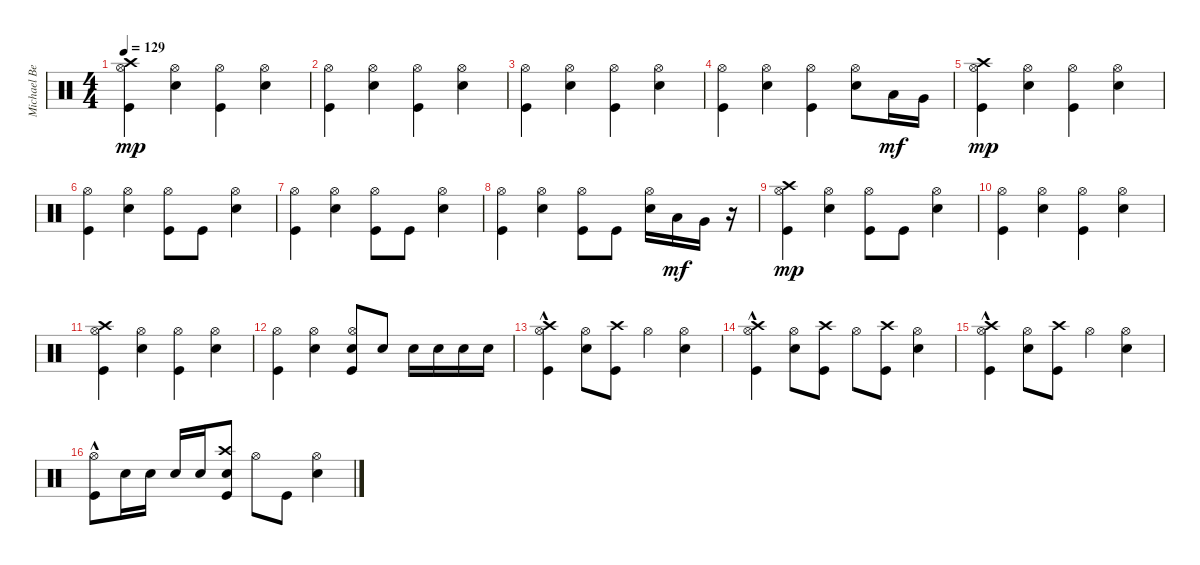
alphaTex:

\track ("Michael Beinham" "Michael Be") {instrument percussion}
\staff {score}
\articulation defaults
\ts (4 4)
\tempo 129
\clef neutral
\ks c
("Kick (hit)" "Hi-Hat (open)" "Crash high (hit)").4{dy mp} ("Snare (hit) 2" "Hi-Hat (open)").4 ("Kick (hit)" "Hi-Hat (open)").4 ("Snare (hit) 2" "Hi-Hat (open)").4 |
("Kick (hit)" "Hi-Hat (open)").4 ("Snare (hit) 2" "Hi-Hat (open)").4 ("Kick (hit)" "Hi-Hat (open)").4 ("Snare (hit) 2" "Hi-Hat (open)").4 |
("Kick (hit)" "Hi-Hat (open)").4 ("Snare (hit) 2" "Hi-Hat (open)").4 ("Kick (hit)" "Hi-Hat (open)").4 ("Snare (hit) 2" "Hi-Hat (open)").4 |
("Kick (hit)" "Hi-Hat (open)").4 ("Snare (hit) 2" "Hi-Hat (open)").4 ("Kick (hit)" "Hi-Hat (open)").4 ("Snare (hit) 2" "Hi-Hat (open)").8 "Low Tom (hit)".16{dy mf} "Very Low Tom (hit)".16 |
("Kick (hit)" "Hi-Hat (open)" "Crash high (hit)").4{dy mp} ("Snare (hit) 2" "Hi-Hat (open)").4 ("Kick (hit)" "Hi-Hat (open)").4 ("Snare (hit) 2" "Hi-Hat (open)").4 |
("Kick (hit)" "Hi-Hat (open)").4 ("Snare (hit) 2" "Hi-Hat (open)").4 ("Kick (hit)" "Hi-Hat (open)").8 "Kick (hit)".8 ("Snare (hit) 2" "Hi-Hat (open)").4 |
("Kick (hit)" "Hi-Hat (open)").4 ("Snare (hit) 2" "Hi-Hat (open)").4 ("Kick (hit)" "Hi-Hat (open)").8 "Kick (hit)".8 ("Snare (hit) 2" "Hi-Hat (open)").4 |
("Kick (hit)" "Hi-Hat (open)").4 ("Snare (hit) 2" "Hi-Hat (open)").4 ("Kick (hit)" "Hi-Hat (open)").8 "Kick (hit)".8 ("Snare (hit) 2" "Hi-Hat (open)").16 "Low Tom (hit)".16{dy mf} "Very Low Tom (hit)".16 r.16 |
("Kick (hit)" "Hi-Hat (open)" "Crash high (hit)").4{dy mp} ("Snare (hit) 2" "Hi-Hat (open)").4 ("Kick (hit)" "Hi-Hat (open)").8 "Kick (hit)".8 ("Snare (hit) 2" "Hi-Hat (open)").4 |
("Kick (hit)" "Hi-Hat (open)").4 ("Snare (hit) 2" "Hi-Hat (open)").4 ("Kick (hit)" "Hi-Hat (open)").4 ("Snare (hit) 2" "Hi-Hat (open)").4 |
("Kick (hit)" "Hi-Hat (open)" "Crash high (hit)").4 ("Snare (hit) 2" "Hi-Hat (open)").4 ("Kick (hit)" "Hi-Hat (open)").4 ("Snare (hit) 2" "Hi-Hat (open)").4 |
("Kick (hit)" "Hi-Hat (open)").4 ("Snare (hit) 2" "Hi-Hat (open)").4 ("Kick (hit)" "Snare (hit) 2" "Hi-Hat (open)").8 "Snare (hit) 2".8 "Snare (hit) 2".16 "Snare (hit) 2".16 "Snare (hit) 2".16 "Snare (hit) 2".16 |
("Kick (hit)"{hac} "Hi-Hat (open)" "Crash high (hit)"{hac}).4 ("Snare (hit) 2" "Hi-Hat (open)").8 ("Kick (hit)" "Crash high (hit)").8 "Hi-Hat (open)".4 ("Snare (hit) 2" "Hi-Hat (open)").4 |
("Kick (hit)"{hac} "Hi-Hat (open)" "Crash high (hit)"{hac}).4 ("Snare (hit) 2" "Hi-Hat (open)").8 ("Kick (hit)" "Crash high (hit)").8 "Hi-Hat (open)".8 ("Kick (hit)" "Crash high (hit)").8 ("Snare (hit) 2" "Hi-Hat (open)").4 |
("Kick (hit)"{hac} "Hi-Hat (open)" "Crash high (hit)"{hac}).4 ("Snare (hit) 2" "Hi-Hat (open)").8 ("Kick (hit)" "Crash high (hit)").8 "Hi-Hat (open)".4 ("Snare (hit) 2" "Hi-Hat (open)").4 |
("Kick (hit)"{hac} "Hi-Hat (open)").8 "Snare (hit) 2".16 "Snare (hit) 2".16 "Snare (hit) 2".16 "Snare (hit) 2".16 ("Kick (hit)" "Snare (hit) 2" "Crash high (hit)").8 "Hi-Hat (open)".8 "Kick (hit)".8 ("Snare (hit) 2" "Hi-Hat (open)").4
